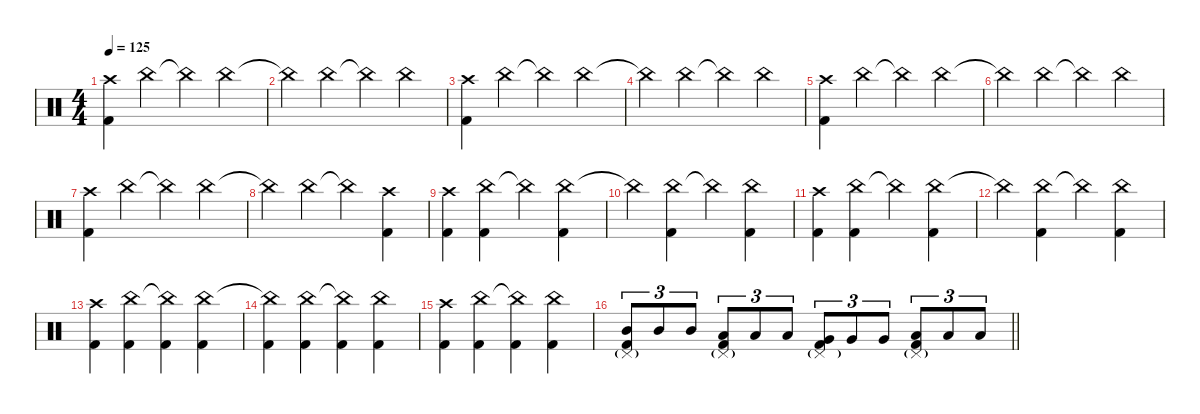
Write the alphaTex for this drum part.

\defaultSystemsLayout 4
\hideDynamics
\bracketExtendMode nobrackets
\singleTrackTrackNamePolicy hidden
\multiTrackTrackNamePolicy hidden
\otherSystemsTrackNameOrientation horizontal
\track ("Gene Hoglan" "drm.") {instrument percussion}
\staff {score}
\articulation defaults
\ts (4 4)
\beaming (8 2 2 2 2)
\tempo 125
\clef neutral
\ks c
("Crash high (hit)" "Kick (hit) 2").4{dy f beam Down} "China (hit)".4{beam Down} "China (hit)"{t}.4{beam Down} "China (hit)".4{beam Down} |
"China (hit)"{t}.4{beam Down} "China (hit)".4{beam Down} "China (hit)"{t}.4{beam Down} "China (hit)".4{beam Down} |
("Crash high (hit)" "Kick (hit) 2").4{beam Down} "China (hit)".4{beam Down} "China (hit)"{t}.4{beam Down} "China (hit)".4{beam Down} |
"China (hit)"{t}.4{beam Down} "China (hit)".4{beam Down} "China (hit)"{t}.4{beam Down} "China (hit)".4{beam Down} |
("Crash high (hit)" "Kick (hit) 2").4{beam Down} "China (hit)".4{beam Down} "China (hit)"{t}.4{beam Down} "China (hit)".4{beam Down} |
"China (hit)"{t}.4{beam Down} "China (hit)".4{beam Down} "China (hit)"{t}.4{beam Down} "China (hit)".4{beam Down} |
("Crash high (hit)" "Kick (hit) 2").4{beam Down} "China (hit)".4{beam Down} "China (hit)"{t}.4{beam Down} "China (hit)".4{beam Down} |
"China (hit)"{t}.4{beam Down} "China (hit)".4{beam Down} "China (hit)"{t}.4{beam Down} ("Crash high (hit)" "Kick (hit) 2").4{beam Down} |
("Crash high (hit)" "Kick (hit) 2").4{beam Down} ("China (hit)" "Kick (hit) 2").4{beam Down} "China (hit)"{t}.4{beam Down} ("China (hit)" "Kick (hit) 2").4{beam Down} |
"China (hit)"{t}.4{beam Down} ("China (hit)" "Kick (hit) 2").4{beam Down} "China (hit)"{t}.4{beam Down} ("China (hit)" "Kick (hit) 2").4{beam Down} |
("Crash high (hit)" "Kick (hit) 2").4{beam Down} ("China (hit)" "Kick (hit) 2").4{beam Down} "China (hit)"{t}.4{beam Down} ("China (hit)" "Kick (hit) 2").4{beam Down} |
"China (hit)"{t}.4{beam Down} ("China (hit)" "Kick (hit) 2").4{beam Down} "China (hit)"{t}.4{beam Down} ("China (hit)" "Kick (hit) 2").4{beam Down} |
("Crash high (hit)" "Kick (hit) 2").4{beam Down} ("China (hit)" "Kick (hit) 2").4{beam Down} ("China (hit)"{t} "Kick (hit) 2").4{beam Down} ("China (hit)" "Kick (hit) 2").4{beam Down} |
("China (hit)"{t} "Kick (hit) 2").4{beam Down} ("China (hit)" "Kick (hit) 2").4{beam Down} ("China (hit)"{t} "Kick (hit) 2").4{beam Down} ("China (hit)" "Kick (hit) 2").4{beam Down} |
("Crash high (hit)" "Kick (hit) 2").4{beam Down} ("China (hit)" "Kick (hit) 2").4{beam Down} ("China (hit)"{t} "Kick (hit) 2").4{beam Down} ("China (hit)" "Kick (hit) 2").4{beam Down} |
\barLineRight lightlight
("Pedal Hi-Hat (hit)"{g} "Mid Tom (hit)" "Kick (hit) 2").8{tu (3 2) beam Up} "Mid Tom (hit)".8{tu (3 2) beam Up} "Mid Tom (hit)".8{tu (3 2) beam Up} ("Pedal Hi-Hat (hit)"{g} "Low Tom (hit)" "Kick (hit) 2").8{tu (3 2) beam Up} "Low Tom (hit)".8{tu (3 2) beam Up} "Low Tom (hit)".8{tu (3 2) beam Up} ("Pedal Hi-Hat (hit)"{g} "Very Low Tom (hit)" "Kick (hit) 2").8{tu (3 2) beam Up} "Very Low Tom (hit)".8{tu (3 2) beam Up} "Very Low Tom (hit)".8{tu (3 2) beam Up} ("Pedal Hi-Hat (hit)"{g} "Low Floor Tom (hit)" "Kick (hit) 2").8{tu (3 2) beam Up} "Low Floor Tom (hit)".8{tu (3 2) beam Up} "Low Floor Tom (hit)".8{tu (3 2) beam Up}
